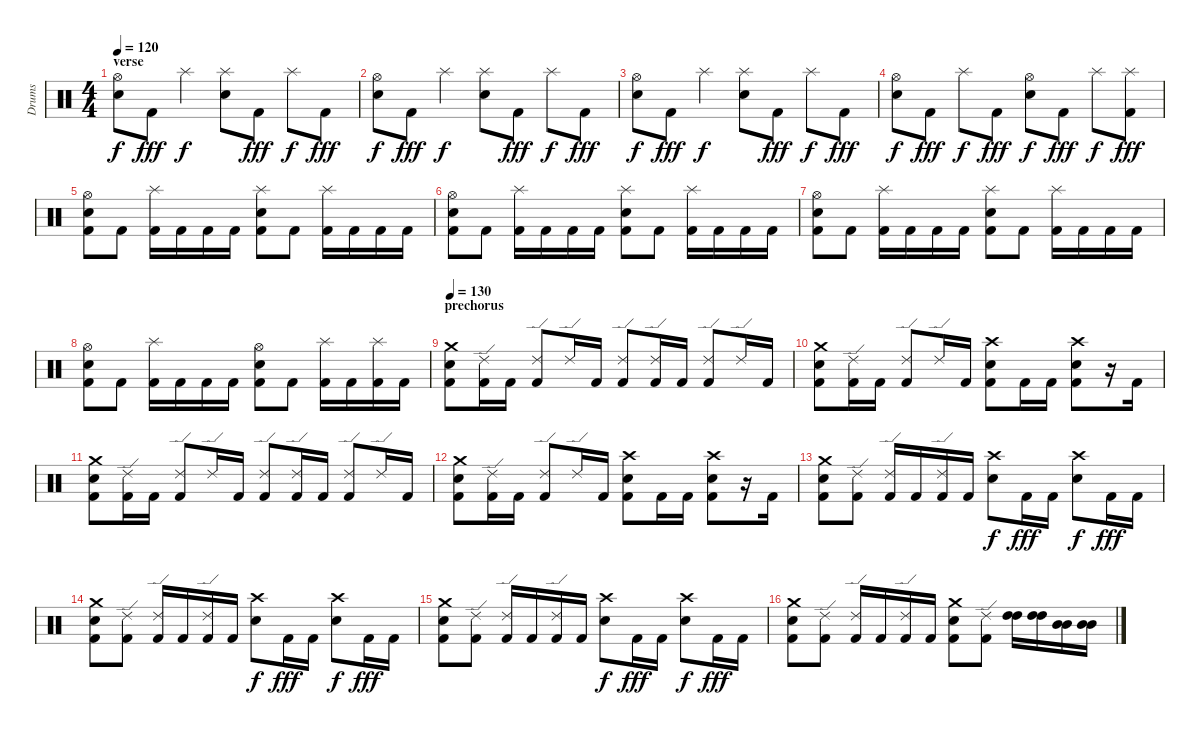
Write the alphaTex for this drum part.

\track ("Drums" "Drums") {instrument percussion}
\staff {score}
\articulation defaults
\ts (4 4)
\section ("" "verse")
\tempo 120
\clef neutral
\ks c
("Hi-Hat (open)" "Electric Snare (hit)").8{dy f} "Kick (hit) 2".8{dy fff} "Splash (hit)".4{dy f} ("Splash (hit)" "Electric Snare (hit)").8 "Kick (hit) 2".8{dy fff} "Splash (hit)".8{dy f} "Kick (hit) 2".8{dy fff} |
("Hi-Hat (open)" "Electric Snare (hit)").8{dy f} "Kick (hit) 2".8{dy fff} "Splash (hit)".4{dy f} ("Splash (hit)" "Electric Snare (hit)").8 "Kick (hit) 2".8{dy fff} "Splash (hit)".8{dy f} "Kick (hit) 2".8{dy fff} |
("Hi-Hat (open)" "Electric Snare (hit)").8{dy f} "Kick (hit) 2".8{dy fff} "Splash (hit)".4{dy f} ("Splash (hit)" "Electric Snare (hit)").8 "Kick (hit) 2".8{dy fff} "Splash (hit)".8{dy f} "Kick (hit) 2".8{dy fff} |
("Hi-Hat (open)" "Electric Snare (hit)").8{dy f} "Kick (hit) 2".8{dy fff} "Splash (hit)".8{dy f} "Kick (hit) 2".8{dy fff} ("Hi-Hat (open)" "Electric Snare (hit)").8{dy f} "Kick (hit) 2".8{dy fff} "Splash (hit)".8{dy f} ("Splash (hit)" "Kick (hit) 2").8{dy fff} |
("Hi-Hat (open)" "Electric Snare (hit)" "Kick (hit) 2").8 "Kick (hit) 2".8 ("Splash (hit)" "Kick (hit) 2").16 "Kick (hit) 2".16 "Kick (hit) 2".16 "Kick (hit) 2".16 ("Splash (hit)" "Electric Snare (hit)" "Kick (hit) 2").8 "Kick (hit) 2".8 ("Splash (hit)" "Kick (hit) 2").16 "Kick (hit) 2".16 "Kick (hit) 2".16 "Kick (hit) 2".16 |
("Hi-Hat (open)" "Electric Snare (hit)" "Kick (hit) 2").8 "Kick (hit) 2".8 ("Splash (hit)" "Kick (hit) 2").16 "Kick (hit) 2".16 "Kick (hit) 2".16 "Kick (hit) 2".16 ("Splash (hit)" "Electric Snare (hit)" "Kick (hit) 2").8 "Kick (hit) 2".8 ("Splash (hit)" "Kick (hit) 2").16 "Kick (hit) 2".16 "Kick (hit) 2".16 "Kick (hit) 2".16 |
("Hi-Hat (open)" "Electric Snare (hit)" "Kick (hit) 2").8 "Kick (hit) 2".8 ("Splash (hit)" "Kick (hit) 2").16 "Kick (hit) 2".16 "Kick (hit) 2".16 "Kick (hit) 2".16 ("Splash (hit)" "Electric Snare (hit)" "Kick (hit) 2").8 "Kick (hit) 2".8 ("Splash (hit)" "Kick (hit) 2").16 "Kick (hit) 2".16 "Kick (hit) 2".16 "Kick (hit) 2".16 |
("Hi-Hat (open)" "Electric Snare (hit)" "Kick (hit) 2").8 "Kick (hit) 2".8 ("Splash (hit)" "Kick (hit) 2").16 "Kick (hit) 2".16 "Kick (hit) 2".16 "Kick (hit) 2".16 ("Hi-Hat (open)" "Electric Snare (hit)" "Kick (hit) 2").8 "Kick (hit) 2".8 ("Splash (hit)" "Kick (hit) 2").16 "Kick (hit) 2".16 ("Splash (hit)" "Kick (hit) 2").16 "Kick (hit) 2".16 |
\section ("" "prechorus")
\tempo 130
("Crash medium (hit)" "Electric Snare (hit)" "Kick (hit) 2").8 ("Ride (edge) 2" "Kick (hit) 2").16 "Kick (hit) 2".16 ("Ride (edge) 2" "Kick (hit) 2").8 "Ride (edge) 2".16 "Kick (hit) 2".16 ("Ride (edge) 2" "Kick (hit) 2").8 ("Ride (edge) 2" "Kick (hit) 2").16 "Kick (hit) 2".16 ("Ride (edge) 2" "Kick (hit) 2").8 "Ride (edge) 2".16 "Kick (hit) 2".16 |
("Crash medium (hit)" "Electric Snare (hit)" "Kick (hit) 2").8 ("Ride (edge) 2" "Kick (hit) 2").16 "Kick (hit) 2".16 ("Ride (edge) 2" "Kick (hit) 2").8 "Ride (edge) 2".16 "Kick (hit) 2".16 ("Crash high (hit)" "Electric Snare (hit)" "Kick (hit) 2").8 "Kick (hit) 2".16 "Kick (hit) 2".16 ("Crash high (hit)" "Electric Snare (hit)" "Kick (hit) 2").8 r.16 "Kick (hit) 2".16 |
("Crash medium (hit)" "Electric Snare (hit)" "Kick (hit) 2").8 ("Ride (edge) 2" "Kick (hit) 2").16 "Kick (hit) 2".16 ("Ride (edge) 2" "Kick (hit) 2").8 "Ride (edge) 2".16 "Kick (hit) 2".16 ("Ride (edge) 2" "Kick (hit) 2").8 ("Ride (edge) 2" "Kick (hit) 2").16 "Kick (hit) 2".16 ("Ride (edge) 2" "Kick (hit) 2").8 "Ride (edge) 2".16 "Kick (hit) 2".16 |
("Crash medium (hit)" "Electric Snare (hit)" "Kick (hit) 2").8 ("Ride (edge) 2" "Kick (hit) 2").16 "Kick (hit) 2".16 ("Ride (edge) 2" "Kick (hit) 2").8 "Ride (edge) 2".16 "Kick (hit) 2".16 ("Crash high (hit)" "Electric Snare (hit)" "Kick (hit) 2").8 "Kick (hit) 2".16 "Kick (hit) 2".16 ("Crash high (hit)" "Electric Snare (hit)" "Kick (hit) 2").8 r.16 "Kick (hit) 2".16 |
("Crash medium (hit)" "Electric Snare (hit)" "Kick (hit) 2").8 ("Ride (edge) 2" "Kick (hit) 2").8 ("Ride (edge) 2" "Kick (hit) 2").16 "Kick (hit) 2".16 ("Ride (edge) 2" "Kick (hit) 2").16 "Kick (hit) 2".16 ("Crash high (hit)" "Electric Snare (hit)").8{dy f} "Kick (hit) 2".16{dy fff} "Kick (hit) 2".16 ("Crash high (hit)" "Electric Snare (hit)").8{dy f} "Kick (hit) 2".16{dy fff} "Kick (hit) 2".16 |
("Crash medium (hit)" "Electric Snare (hit)" "Kick (hit) 2").8 ("Ride (edge) 2" "Kick (hit) 2").8 ("Ride (edge) 2" "Kick (hit) 2").16 "Kick (hit) 2".16 ("Ride (edge) 2" "Kick (hit) 2").16 "Kick (hit) 2".16 ("Crash high (hit)" "Electric Snare (hit)").8{dy f} "Kick (hit) 2".16{dy fff} "Kick (hit) 2".16 ("Crash high (hit)" "Electric Snare (hit)").8{dy f} "Kick (hit) 2".16{dy fff} "Kick (hit) 2".16 |
("Crash medium (hit)" "Electric Snare (hit)" "Kick (hit) 2").8 ("Ride (edge) 2" "Kick (hit) 2").8 ("Ride (edge) 2" "Kick (hit) 2").16 "Kick (hit) 2".16 ("Ride (edge) 2" "Kick (hit) 2").16 "Kick (hit) 2".16 ("Crash high (hit)" "Electric Snare (hit)").8{dy f} "Kick (hit) 2".16{dy fff} "Kick (hit) 2".16 ("Crash high (hit)" "Electric Snare (hit)").8{dy f} "Kick (hit) 2".16{dy fff} "Kick (hit) 2".16 |
("Crash medium (hit)" "Electric Snare (hit)" "Kick (hit) 2").8 ("Ride (edge) 2" "Kick (hit) 2").8 ("Ride (edge) 2" "Kick (hit) 2").16 "Kick (hit) 2".16 ("Ride (edge) 2" "Kick (hit) 2").16 "Kick (hit) 2".16 ("Crash medium (hit)" "Electric Snare (hit)" "Kick (hit) 2").8 ("Ride (edge) 2" "Kick (hit) 2").8 ("High Tom (hit)" "High Tom (hit)").16 ("High Tom (hit)" "High Tom (hit)").16 ("Mid Tom (hit)" "Mid Tom (hit)").16 ("Mid Tom (hit)" "Mid Tom (hit)").16
